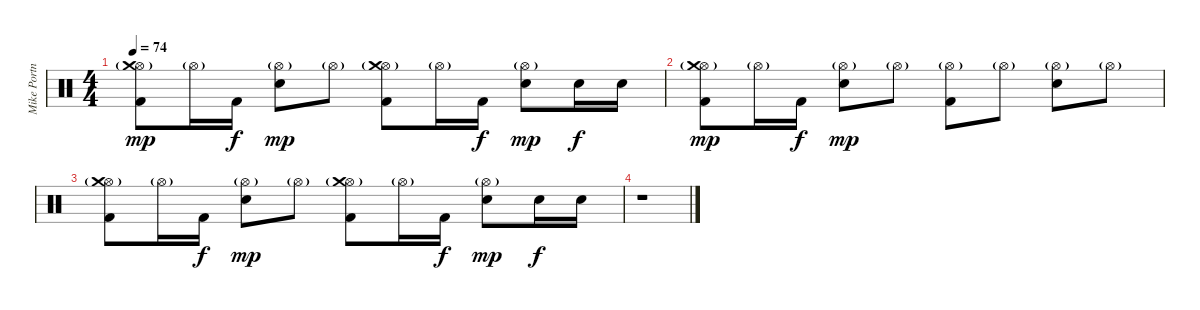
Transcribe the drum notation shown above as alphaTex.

\track ("Mike Portnoy" "Mike Portn") {instrument percussion}
\staff {score}
\articulation defaults
\ts (4 4)
\tempo 74
\clef neutral
\ks c
("Hi-Hat (open)"{g} "Crash medium (hit)" "Kick (hit) 2").8{dy mp} "Hi-Hat (open)"{g}.16 "Kick (hit) 2".16{dy f} ("Hi-Hat (open)"{g} "Electric Snare (hit)").8{dy mp} "Hi-Hat (open)"{g}.8 ("Hi-Hat (open)"{g} "Crash medium (hit)" "Kick (hit) 2").8 "Hi-Hat (open)"{g}.16 "Kick (hit) 2".16{dy f} ("Hi-Hat (open)"{g} "Electric Snare (hit)").8{dy mp} "Electric Snare (hit)".16{dy f} "Electric Snare (hit)".16 |
("Hi-Hat (open)"{g} "Crash medium (hit)" "Kick (hit) 2").8{dy mp} "Hi-Hat (open)"{g}.16 "Kick (hit) 2".16{dy f} ("Hi-Hat (open)"{g} "Electric Snare (hit)").8{dy mp} "Hi-Hat (open)"{g}.8 ("Hi-Hat (open)"{g} "Kick (hit) 2").8 "Hi-Hat (open)"{g}.8 ("Hi-Hat (open)"{g} "Electric Snare (hit)").8 "Hi-Hat (open)"{g}.8 |
("Hi-Hat (open)"{g} "Crash medium (hit)" "Kick (hit) 2").8 "Hi-Hat (open)"{g}.16 "Kick (hit) 2".16{dy f} ("Hi-Hat (open)"{g} "Electric Snare (hit)").8{dy mp} "Hi-Hat (open)"{g}.8 ("Hi-Hat (open)"{g} "Crash medium (hit)" "Kick (hit) 2").8 "Hi-Hat (open)"{g}.16 "Kick (hit) 2".16{dy f} ("Hi-Hat (open)"{g} "Electric Snare (hit)").8{dy mp} "Electric Snare (hit)".16{dy f} "Electric Snare (hit)".16 |
r.1
